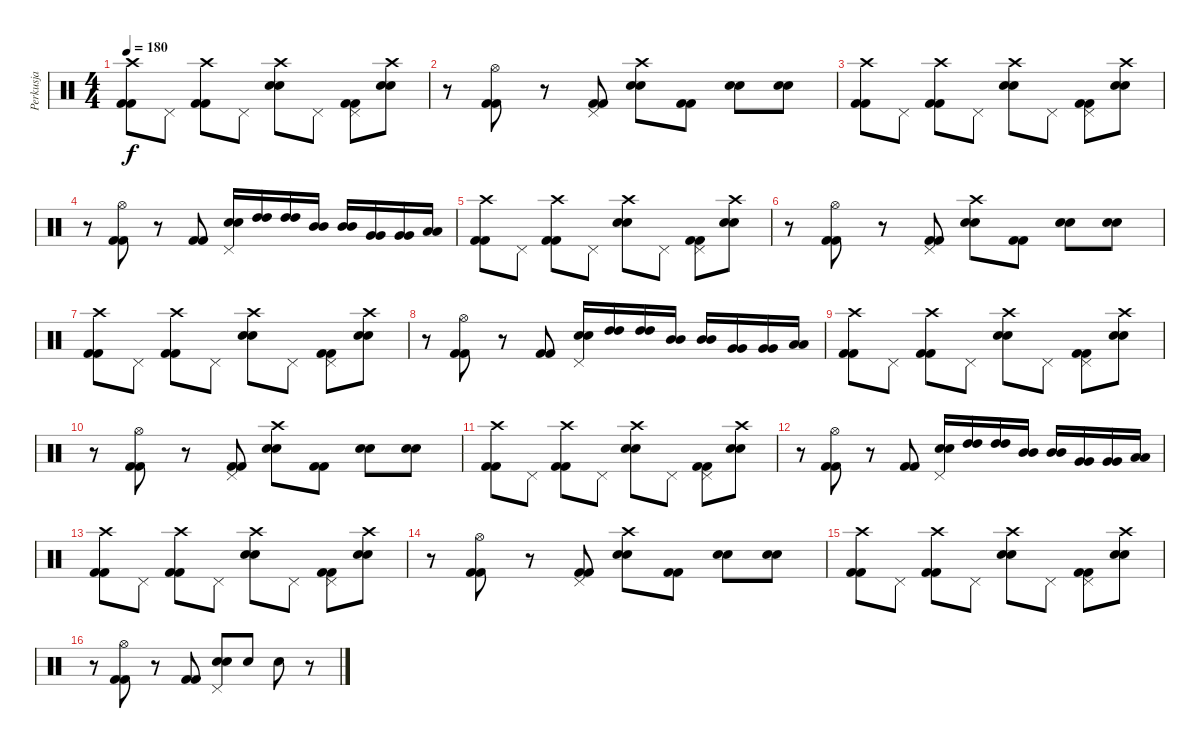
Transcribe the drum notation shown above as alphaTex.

\track ("Perkusja" "Perkusja") {instrument percussion}
\staff {score}
\articulation defaults
\ts (4 4)
\tempo 180
\clef neutral
\ks c
("Crash high (hit)" "Kick (hit) 2" "Kick (hit) 2").8{dy f} "Pedal Hi-Hat (hit)".8 ("Crash high (hit)" "Kick (hit) 2" "Kick (hit) 2").8 "Pedal Hi-Hat (hit)".8 ("Crash high (hit)" "Snare (hit) 2" "Snare (hit) 2").8 "Pedal Hi-Hat (hit)".8 ("Pedal Hi-Hat (hit)" "Kick (hit) 2" "Kick (hit) 2").8 ("Crash high (hit)" "Snare (hit) 2" "Snare (hit) 2").8 |
r.8 ("Hi-Hat (open)" "Kick (hit) 2" "Kick (hit) 2").8 r.8 ("Pedal Hi-Hat (hit)" "Kick (hit) 2" "Kick (hit) 2").8 ("Crash high (hit)" "Snare (hit) 2" "Snare (hit) 2").8 ("Kick (hit) 2" "Kick (hit) 2").8 ("Snare (hit) 2" "Snare (hit) 2").8 ("Snare (hit) 2" "Snare (hit) 2").8 |
("Crash high (hit)" "Kick (hit) 2" "Kick (hit) 2").8 "Pedal Hi-Hat (hit)".8 ("Crash high (hit)" "Kick (hit) 2" "Kick (hit) 2").8 "Pedal Hi-Hat (hit)".8 ("Crash high (hit)" "Snare (hit) 2" "Snare (hit) 2").8 "Pedal Hi-Hat (hit)".8 ("Pedal Hi-Hat (hit)" "Kick (hit) 2" "Kick (hit) 2").8 ("Crash high (hit)" "Snare (hit) 2" "Snare (hit) 2").8 |
r.8 ("Hi-Hat (open)" "Kick (hit) 2" "Kick (hit) 2").8 r.8 ("Kick (hit) 2" "Kick (hit) 2").8 ("Snare (hit) 2" "Snare (hit) 2" "Pedal Hi-Hat (hit)").16 ("High Tom (hit)" "High Tom (hit)").16 ("High Tom (hit)" "High Tom (hit)").16 ("Mid Tom (hit)" "Mid Tom (hit)").16 ("Mid Tom (hit)" "Mid Tom (hit)").16 ("Very Low Tom (hit)" "Very Low Tom (hit)").16 ("Very Low Tom (hit)" "Very Low Tom (hit)").16 ("Low Floor Tom (hit)" "Low Floor Tom (hit)").16 |
("Crash high (hit)" "Kick (hit) 2" "Kick (hit) 2").8 "Pedal Hi-Hat (hit)".8 ("Crash high (hit)" "Kick (hit) 2" "Kick (hit) 2").8 "Pedal Hi-Hat (hit)".8 ("Crash high (hit)" "Snare (hit) 2" "Snare (hit) 2").8 "Pedal Hi-Hat (hit)".8 ("Pedal Hi-Hat (hit)" "Kick (hit) 2" "Kick (hit) 2").8 ("Crash high (hit)" "Snare (hit) 2" "Snare (hit) 2").8 |
r.8 ("Hi-Hat (open)" "Kick (hit) 2" "Kick (hit) 2").8 r.8 ("Pedal Hi-Hat (hit)" "Kick (hit) 2" "Kick (hit) 2").8 ("Crash high (hit)" "Snare (hit) 2" "Snare (hit) 2").8 ("Kick (hit) 2" "Kick (hit) 2").8 ("Snare (hit) 2" "Snare (hit) 2").8 ("Snare (hit) 2" "Snare (hit) 2").8 |
("Crash high (hit)" "Kick (hit) 2" "Kick (hit) 2").8 "Pedal Hi-Hat (hit)".8 ("Crash high (hit)" "Kick (hit) 2" "Kick (hit) 2").8 "Pedal Hi-Hat (hit)".8 ("Crash high (hit)" "Snare (hit) 2" "Snare (hit) 2").8 "Pedal Hi-Hat (hit)".8 ("Pedal Hi-Hat (hit)" "Kick (hit) 2" "Kick (hit) 2").8 ("Crash high (hit)" "Snare (hit) 2" "Snare (hit) 2").8 |
r.8 ("Hi-Hat (open)" "Kick (hit) 2" "Kick (hit) 2").8 r.8 ("Kick (hit) 2" "Kick (hit) 2").8 ("Snare (hit) 2" "Snare (hit) 2" "Pedal Hi-Hat (hit)").16 ("High Tom (hit)" "High Tom (hit)").16 ("High Tom (hit)" "High Tom (hit)").16 ("Mid Tom (hit)" "Mid Tom (hit)").16 ("Mid Tom (hit)" "Mid Tom (hit)").16 ("Very Low Tom (hit)" "Very Low Tom (hit)").16 ("Very Low Tom (hit)" "Very Low Tom (hit)").16 ("Low Floor Tom (hit)" "Low Floor Tom (hit)").16 |
("Crash high (hit)" "Kick (hit) 2" "Kick (hit) 2").8 "Pedal Hi-Hat (hit)".8 ("Crash high (hit)" "Kick (hit) 2" "Kick (hit) 2").8 "Pedal Hi-Hat (hit)".8 ("Crash high (hit)" "Snare (hit) 2" "Snare (hit) 2").8 "Pedal Hi-Hat (hit)".8 ("Pedal Hi-Hat (hit)" "Kick (hit) 2" "Kick (hit) 2").8 ("Crash high (hit)" "Snare (hit) 2" "Snare (hit) 2").8 |
r.8 ("Hi-Hat (open)" "Kick (hit) 2" "Kick (hit) 2").8 r.8 ("Pedal Hi-Hat (hit)" "Kick (hit) 2" "Kick (hit) 2").8 ("Crash high (hit)" "Snare (hit) 2" "Snare (hit) 2").8 ("Kick (hit) 2" "Kick (hit) 2").8 ("Snare (hit) 2" "Snare (hit) 2").8 ("Snare (hit) 2" "Snare (hit) 2").8 |
("Crash high (hit)" "Kick (hit) 2" "Kick (hit) 2").8 "Pedal Hi-Hat (hit)".8 ("Crash high (hit)" "Kick (hit) 2" "Kick (hit) 2").8 "Pedal Hi-Hat (hit)".8 ("Crash high (hit)" "Snare (hit) 2" "Snare (hit) 2").8 "Pedal Hi-Hat (hit)".8 ("Pedal Hi-Hat (hit)" "Kick (hit) 2" "Kick (hit) 2").8 ("Crash high (hit)" "Snare (hit) 2" "Snare (hit) 2").8 |
r.8 ("Hi-Hat (open)" "Kick (hit) 2" "Kick (hit) 2").8 r.8 ("Kick (hit) 2" "Kick (hit) 2").8 ("Snare (hit) 2" "Snare (hit) 2" "Pedal Hi-Hat (hit)").16 ("High Tom (hit)" "High Tom (hit)").16 ("High Tom (hit)" "High Tom (hit)").16 ("Mid Tom (hit)" "Mid Tom (hit)").16 ("Mid Tom (hit)" "Mid Tom (hit)").16 ("Very Low Tom (hit)" "Very Low Tom (hit)").16 ("Very Low Tom (hit)" "Very Low Tom (hit)").16 ("Low Floor Tom (hit)" "Low Floor Tom (hit)").16 |
("Crash high (hit)" "Kick (hit) 2" "Kick (hit) 2").8 "Pedal Hi-Hat (hit)".8 ("Crash high (hit)" "Kick (hit) 2" "Kick (hit) 2").8 "Pedal Hi-Hat (hit)".8 ("Crash high (hit)" "Snare (hit) 2" "Snare (hit) 2").8 "Pedal Hi-Hat (hit)".8 ("Pedal Hi-Hat (hit)" "Kick (hit) 2" "Kick (hit) 2").8 ("Crash high (hit)" "Snare (hit) 2" "Snare (hit) 2").8 |
r.8 ("Hi-Hat (open)" "Kick (hit) 2" "Kick (hit) 2").8 r.8 ("Pedal Hi-Hat (hit)" "Kick (hit) 2" "Kick (hit) 2").8 ("Crash high (hit)" "Snare (hit) 2" "Snare (hit) 2").8 ("Kick (hit) 2" "Kick (hit) 2").8 ("Snare (hit) 2" "Snare (hit) 2").8 ("Snare (hit) 2" "Snare (hit) 2").8 |
("Crash high (hit)" "Kick (hit) 2" "Kick (hit) 2").8 "Pedal Hi-Hat (hit)".8 ("Crash high (hit)" "Kick (hit) 2" "Kick (hit) 2").8 "Pedal Hi-Hat (hit)".8 ("Crash high (hit)" "Snare (hit) 2" "Snare (hit) 2").8 "Pedal Hi-Hat (hit)".8 ("Pedal Hi-Hat (hit)" "Kick (hit) 2" "Kick (hit) 2").8 ("Crash high (hit)" "Snare (hit) 2" "Snare (hit) 2").8 |
r.8 ("Hi-Hat (open)" "Kick (hit) 2" "Kick (hit) 2").8 r.8 ("Kick (hit) 2" "Kick (hit) 2").8 ("Snare (hit) 2" "Snare (hit) 2" "Pedal Hi-Hat (hit)").8 "Snare (hit) 2".8 "Snare (hit) 2".8 r.8
